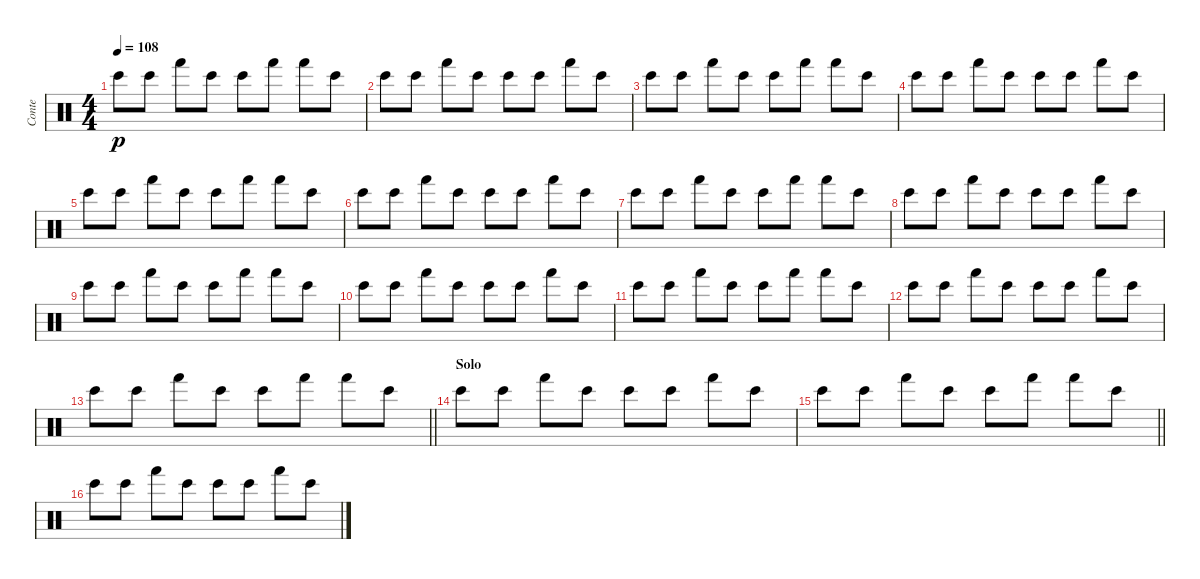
\track ("Conte" "Conte") {instrument percussion}
\staff {score}
\articulation defaults
\ts (4 4)
\tempo 108
\clef neutral
\ks c "Bongo High (hit)".8{dy p} "Bongo High (hit)".8 "Hand (hit)".8 "Bongo High (hit)".8 "Bongo High (hit)".8 "Hand (hit)".8 "Hand (hit)".8 "Bongo High (hit)".8
|
"Bongo High (hit)".8 "Bongo High (hit)".8 "Hand (hit)".8 "Bongo High (hit)".8 "Bongo High (hit)".8 "Bongo High (hit)".8 "Hand (hit)".8 "Bongo High (hit)".8 |
"Bongo High (hit)".8 "Bongo High (hit)".8 "Hand (hit)".8 "Bongo High (hit)".8 "Bongo High (hit)".8 "Hand (hit)".8 "Hand (hit)".8 "Bongo High (hit)".8 |
"Bongo High (hit)".8 "Bongo High (hit)".8 "Hand (hit)".8 "Bongo High (hit)".8 "Bongo High (hit)".8 "Bongo High (hit)".8 "Hand (hit)".8 "Bongo High (hit)".8 |
"Bongo High (hit)".8 "Bongo High (hit)".8 "Hand (hit)".8 "Bongo High (hit)".8 "Bongo High (hit)".8 "Hand (hit)".8 "Hand (hit)".8 "Bongo High (hit)".8 |
"Bongo High (hit)".8 "Bongo High (hit)".8 "Hand (hit)".8 "Bongo High (hit)".8 "Bongo High (hit)".8 "Bongo High (hit)".8 "Hand (hit)".8 "Bongo High (hit)".8 |
"Bongo High (hit)".8 "Bongo High (hit)".8 "Hand (hit)".8 "Bongo High (hit)".8 "Bongo High (hit)".8 "Hand (hit)".8 "Hand (hit)".8 "Bongo High (hit)".8 |
"Bongo High (hit)".8 "Bongo High (hit)".8 "Hand (hit)".8 "Bongo High (hit)".8 "Bongo High (hit)".8 "Bongo High (hit)".8 "Hand (hit)".8 "Bongo High (hit)".8 |
"Bongo High (hit)".8 "Bongo High (hit)".8 "Hand (hit)".8 "Bongo High (hit)".8 "Bongo High (hit)".8 "Hand (hit)".8 "Hand (hit)".8 "Bongo High (hit)".8 |
"Bongo High (hit)".8 "Bongo High (hit)".8 "Hand (hit)".8 "Bongo High (hit)".8 "Bongo High (hit)".8 "Bongo High (hit)".8 "Hand (hit)".8 "Bongo High (hit)".8 |
"Bongo High (hit)".8 "Bongo High (hit)".8 "Hand (hit)".8 "Bongo High (hit)".8 "Bongo High (hit)".8 "Hand (hit)".8 "Hand (hit)".8 "Bongo High (hit)".8 |
"Bongo High (hit)".8 "Bongo High (hit)".8 "Hand (hit)".8 "Bongo High (hit)".8 "Bongo High (hit)".8 "Bongo High (hit)".8 "Hand (hit)".8 "Bongo High (hit)".8 |
\barLineRight lightlight "Bongo High (hit)".8 "Bongo High (hit)".8 "Hand (hit)".8 "Bongo High (hit)".8 "Bongo High (hit)".8 "Hand (hit)".8 "Hand (hit)".8 "Bongo High (hit)".8
|
\section ("" "Solo")
"Bongo High (hit)".8 "Bongo High (hit)".8 "Hand (hit)".8 "Bongo High (hit)".8 "Bongo High (hit)".8 "Bongo High (hit)".8 "Hand (hit)".8 "Bongo High (hit)".8 |
\barLineRight lightlight "Bongo High (hit)".8 "Bongo High (hit)".8 "Hand (hit)".8 "Bongo High (hit)".8 "Bongo High (hit)".8 "Hand (hit)".8 "Hand (hit)".8 "Bongo High (hit)".8
|
"Bongo High (hit)".8 "Bongo High (hit)".8 "Hand (hit)".8 "Bongo High (hit)".8 "Bongo High (hit)".8 "Bongo High (hit)".8 "Hand (hit)".8 "Bongo High (hit)".8
